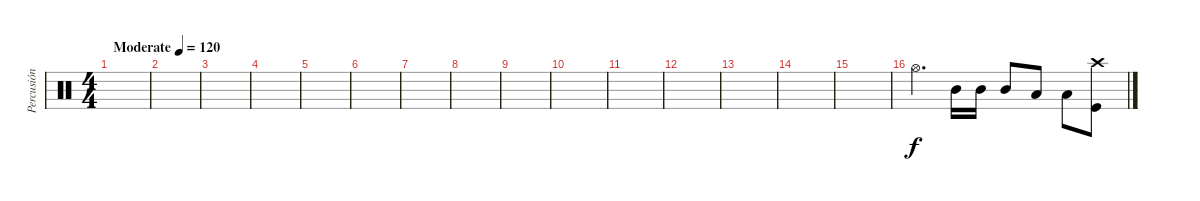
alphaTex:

\track ("Percusión" "Percusión") {instrument percussion}
\staff {score}
\articulation defaults
\ts (4 4)
\tempo (120 "Moderate")
\clef neutral
\ks c
|
|
|
|
|
|
|
|
|
|
|
|
|
|
|
"Hi-Hat (open)".4{d} "Mid Tom (hit)".16 "Mid Tom (hit)".16 "Mid Tom (hit)".8 "Low Floor Tom (hit)".8 "Low Floor Tom (hit)".8 ("Crash high (hit)" "Kick (hit)").8
